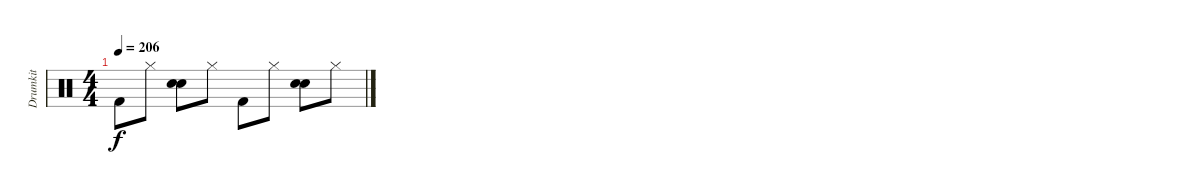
\track ("Drumkit" "Drumkit") {instrument percussion}
\staff {score}
\articulation defaults
\ts (4 4)
\tempo 206
\clef neutral
\ks c "Kick (hit) 2".8{dy f} "Hi-Hat (closed)".8
("Hand Clap (hit)" "Snare (hit) 2").8 "Hi-Hat (closed)".8 "Kick (hit) 2".8 "Hi-Hat (closed)".8 ("Hand Clap (hit)" "Snare (hit) 2").8 "Hi-Hat (closed)".8
